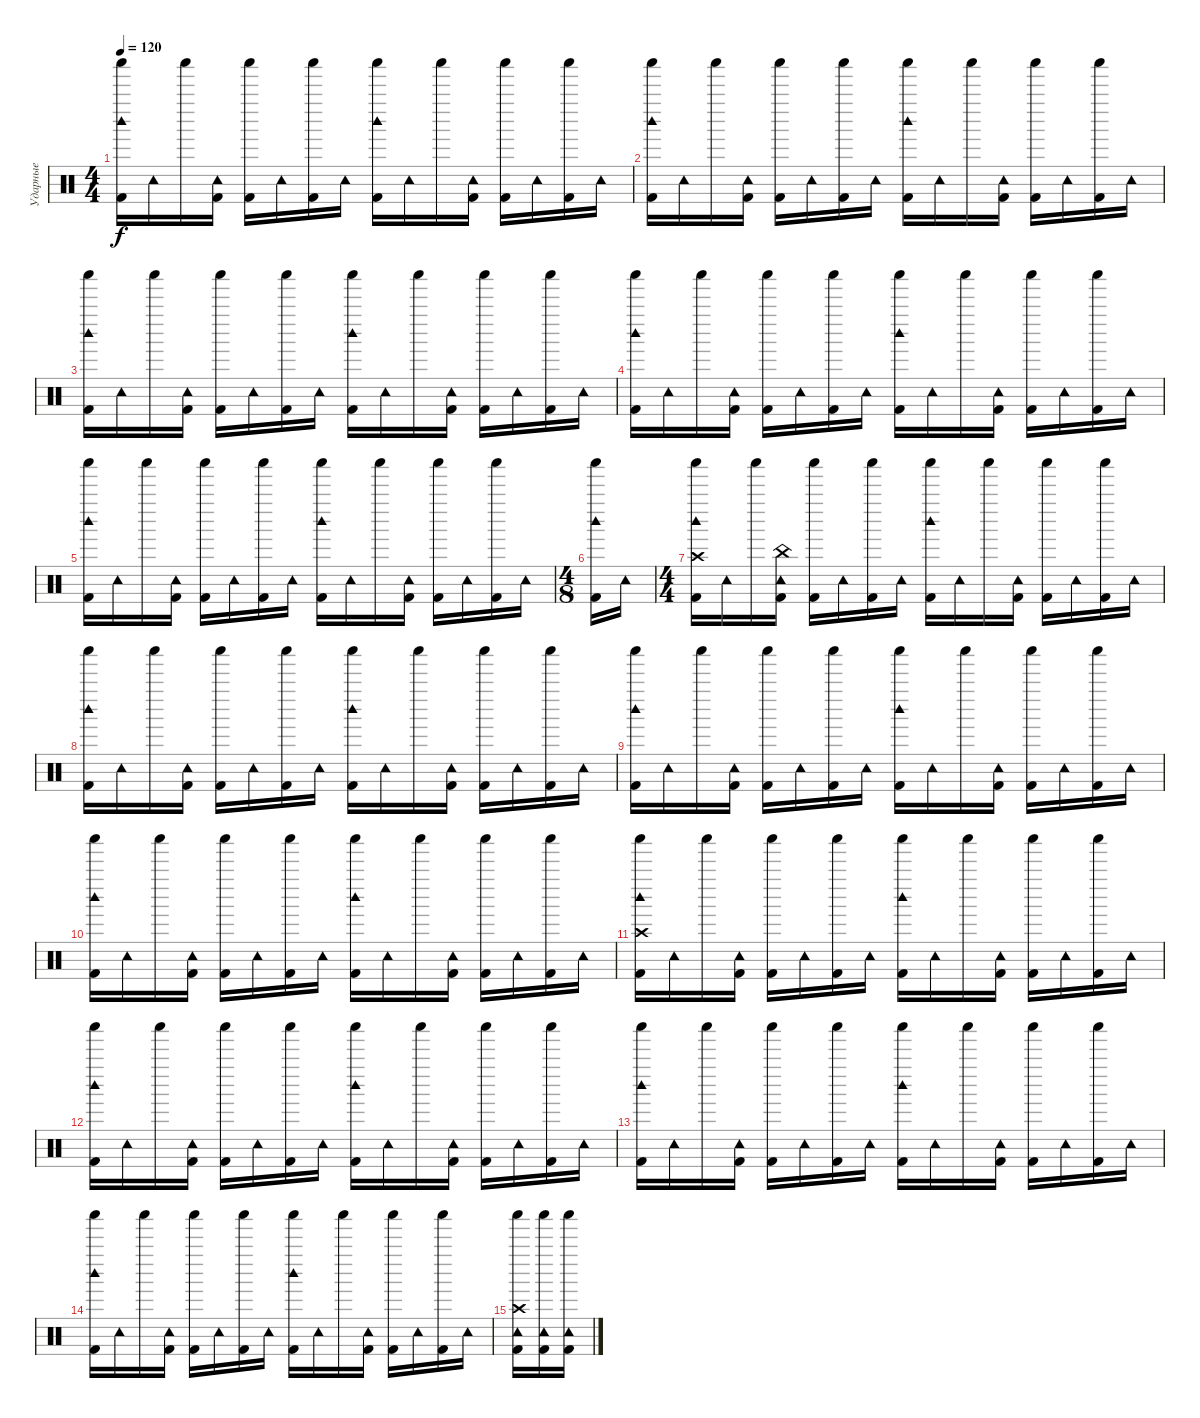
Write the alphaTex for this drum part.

\track ("Ударные" "Ударные") {instrument percussion}
\staff {score}
\articulation defaults
\ts (4 4)
\tempo 120
\clef neutral
\ks c
("Shaker (hit)" "Kick (hit) 2" "Woodblock high (hit)").16{dy f} "Tambourine (hit)".16 "Shaker (hit)".16 ("Tambourine (hit)" "Kick (hit) 2").16 ("Shaker (hit)" "Kick (hit) 2").16 "Tambourine (hit)".16 ("Shaker (hit)" "Kick (hit) 2").16 "Tambourine (hit)".16 ("Shaker (hit)" "Kick (hit) 2" "Woodblock high (hit)").16 "Tambourine (hit)".16 "Shaker (hit)".16 ("Tambourine (hit)" "Kick (hit) 2").16 ("Shaker (hit)" "Kick (hit) 2").16 "Tambourine (hit)".16 ("Shaker (hit)" "Kick (hit) 2").16 "Tambourine (hit)".16 |
("Shaker (hit)" "Kick (hit) 2" "Woodblock high (hit)").16 "Tambourine (hit)".16 "Shaker (hit)".16 ("Tambourine (hit)" "Kick (hit) 2").16 ("Shaker (hit)" "Kick (hit) 2").16 "Tambourine (hit)".16 ("Shaker (hit)" "Kick (hit) 2").16 "Tambourine (hit)".16 ("Shaker (hit)" "Kick (hit) 2" "Woodblock high (hit)").16 "Tambourine (hit)".16 "Shaker (hit)".16 ("Tambourine (hit)" "Kick (hit) 2").16 ("Shaker (hit)" "Kick (hit) 2").16 "Tambourine (hit)".16 ("Shaker (hit)" "Kick (hit) 2").16 "Tambourine (hit)".16 |
("Shaker (hit)" "Kick (hit) 2" "Woodblock high (hit)").16 "Tambourine (hit)".16 "Shaker (hit)".16 ("Tambourine (hit)" "Kick (hit) 2").16 ("Shaker (hit)" "Kick (hit) 2").16 "Tambourine (hit)".16 ("Shaker (hit)" "Kick (hit) 2").16 "Tambourine (hit)".16 ("Shaker (hit)" "Kick (hit) 2" "Woodblock high (hit)").16 "Tambourine (hit)".16 "Shaker (hit)".16 ("Tambourine (hit)" "Kick (hit) 2").16 ("Shaker (hit)" "Kick (hit) 2").16 "Tambourine (hit)".16 ("Shaker (hit)" "Kick (hit) 2").16 "Tambourine (hit)".16 |
("Shaker (hit)" "Kick (hit) 2" "Woodblock high (hit)").16 "Tambourine (hit)".16 "Shaker (hit)".16 ("Tambourine (hit)" "Kick (hit) 2").16 ("Shaker (hit)" "Kick (hit) 2").16 "Tambourine (hit)".16 ("Shaker (hit)" "Kick (hit) 2").16 "Tambourine (hit)".16 ("Shaker (hit)" "Kick (hit) 2" "Woodblock high (hit)").16 "Tambourine (hit)".16 "Shaker (hit)".16 ("Tambourine (hit)" "Kick (hit) 2").16 ("Shaker (hit)" "Kick (hit) 2").16 "Tambourine (hit)".16 ("Shaker (hit)" "Kick (hit) 2").16 "Tambourine (hit)".16 |
("Shaker (hit)" "Kick (hit) 2" "Woodblock high (hit)").16 "Tambourine (hit)".16 "Shaker (hit)".16 ("Tambourine (hit)" "Kick (hit) 2").16 ("Shaker (hit)" "Kick (hit) 2").16 "Tambourine (hit)".16 ("Shaker (hit)" "Kick (hit) 2").16 "Tambourine (hit)".16 ("Shaker (hit)" "Kick (hit) 2" "Woodblock high (hit)").16 "Tambourine (hit)".16 "Shaker (hit)".16 ("Tambourine (hit)" "Kick (hit) 2").16 ("Shaker (hit)" "Kick (hit) 2").16 "Tambourine (hit)".16 ("Shaker (hit)" "Kick (hit) 2").16 "Tambourine (hit)".16 |
\ts (4 8)
("Shaker (hit)" "Kick (hit) 2" "Woodblock high (hit)").16 "Tambourine (hit)".16 |
\ts (4 4)
("Shaker (hit)" "Kick (hit) 2" "Woodblock high (hit)" "Crash high (hit)").16 "Tambourine (hit)".16 "Shaker (hit)".16 ("Tambourine (hit)" "Kick (hit) 2" "China (hit)").16 ("Shaker (hit)" "Kick (hit) 2").16 "Tambourine (hit)".16 ("Shaker (hit)" "Kick (hit) 2").16 "Tambourine (hit)".16 ("Shaker (hit)" "Kick (hit) 2" "Woodblock high (hit)").16 "Tambourine (hit)".16 "Shaker (hit)".16 ("Tambourine (hit)" "Kick (hit) 2").16 ("Shaker (hit)" "Kick (hit) 2").16 "Tambourine (hit)".16 ("Shaker (hit)" "Kick (hit) 2").16 "Tambourine (hit)".16 |
("Shaker (hit)" "Kick (hit) 2" "Woodblock high (hit)").16 "Tambourine (hit)".16 "Shaker (hit)".16 ("Tambourine (hit)" "Kick (hit) 2").16 ("Shaker (hit)" "Kick (hit) 2").16 "Tambourine (hit)".16 ("Shaker (hit)" "Kick (hit) 2").16 "Tambourine (hit)".16 ("Shaker (hit)" "Kick (hit) 2" "Woodblock high (hit)").16 "Tambourine (hit)".16 "Shaker (hit)".16 ("Tambourine (hit)" "Kick (hit) 2").16 ("Shaker (hit)" "Kick (hit) 2").16 "Tambourine (hit)".16 ("Shaker (hit)" "Kick (hit) 2").16 "Tambourine (hit)".16 |
("Shaker (hit)" "Kick (hit) 2" "Woodblock high (hit)").16 "Tambourine (hit)".16 "Shaker (hit)".16 ("Tambourine (hit)" "Kick (hit) 2").16 ("Shaker (hit)" "Kick (hit) 2").16 "Tambourine (hit)".16 ("Shaker (hit)" "Kick (hit) 2").16 "Tambourine (hit)".16 ("Shaker (hit)" "Kick (hit) 2" "Woodblock high (hit)").16 "Tambourine (hit)".16 "Shaker (hit)".16 ("Tambourine (hit)" "Kick (hit) 2").16 ("Shaker (hit)" "Kick (hit) 2").16 "Tambourine (hit)".16 ("Shaker (hit)" "Kick (hit) 2").16 "Tambourine (hit)".16 |
("Shaker (hit)" "Kick (hit) 2" "Woodblock high (hit)").16 "Tambourine (hit)".16 "Shaker (hit)".16 ("Tambourine (hit)" "Kick (hit) 2").16 ("Shaker (hit)" "Kick (hit) 2").16 "Tambourine (hit)".16 ("Shaker (hit)" "Kick (hit) 2").16 "Tambourine (hit)".16 ("Shaker (hit)" "Kick (hit) 2" "Woodblock high (hit)").16 "Tambourine (hit)".16 "Shaker (hit)".16 ("Tambourine (hit)" "Kick (hit) 2").16 ("Shaker (hit)" "Kick (hit) 2").16 "Tambourine (hit)".16 ("Shaker (hit)" "Kick (hit) 2").16 "Tambourine (hit)".16 |
("Shaker (hit)" "Kick (hit) 2" "Crash high (hit)" "Woodblock high (hit)").16 "Tambourine (hit)".16 "Shaker (hit)".16 ("Tambourine (hit)" "Kick (hit) 2").16 ("Shaker (hit)" "Kick (hit) 2").16 "Tambourine (hit)".16 ("Shaker (hit)" "Kick (hit) 2").16 "Tambourine (hit)".16 ("Shaker (hit)" "Kick (hit) 2" "Woodblock high (hit)").16 "Tambourine (hit)".16 "Shaker (hit)".16 ("Tambourine (hit)" "Kick (hit) 2").16 ("Shaker (hit)" "Kick (hit) 2").16 "Tambourine (hit)".16 ("Shaker (hit)" "Kick (hit) 2").16 "Tambourine (hit)".16 |
("Shaker (hit)" "Kick (hit) 2" "Woodblock high (hit)").16 "Tambourine (hit)".16 "Shaker (hit)".16 ("Tambourine (hit)" "Kick (hit) 2").16 ("Shaker (hit)" "Kick (hit) 2").16 "Tambourine (hit)".16 ("Shaker (hit)" "Kick (hit) 2").16 "Tambourine (hit)".16 ("Shaker (hit)" "Kick (hit) 2" "Woodblock high (hit)").16 "Tambourine (hit)".16 "Shaker (hit)".16 ("Tambourine (hit)" "Kick (hit) 2").16 ("Shaker (hit)" "Kick (hit) 2").16 "Tambourine (hit)".16 ("Shaker (hit)" "Kick (hit) 2").16 "Tambourine (hit)".16 |
("Shaker (hit)" "Kick (hit) 2" "Woodblock high (hit)").16 "Tambourine (hit)".16 "Shaker (hit)".16 ("Tambourine (hit)" "Kick (hit) 2").16 ("Shaker (hit)" "Kick (hit) 2").16 "Tambourine (hit)".16 ("Shaker (hit)" "Kick (hit) 2").16 "Tambourine (hit)".16 ("Shaker (hit)" "Kick (hit) 2" "Woodblock high (hit)").16 "Tambourine (hit)".16 "Shaker (hit)".16 ("Tambourine (hit)" "Kick (hit) 2").16 ("Shaker (hit)" "Kick (hit) 2").16 "Tambourine (hit)".16 ("Shaker (hit)" "Kick (hit) 2").16 "Tambourine (hit)".16 |
("Shaker (hit)" "Kick (hit) 2" "Woodblock high (hit)").16 "Tambourine (hit)".16 "Shaker (hit)".16 ("Tambourine (hit)" "Kick (hit) 2").16 ("Shaker (hit)" "Kick (hit) 2").16 "Tambourine (hit)".16 ("Shaker (hit)" "Kick (hit) 2").16 "Tambourine (hit)".16 ("Shaker (hit)" "Kick (hit) 2" "Woodblock high (hit)").16 "Tambourine (hit)".16 "Shaker (hit)".16 ("Tambourine (hit)" "Kick (hit) 2").16 ("Shaker (hit)" "Kick (hit) 2").16 "Tambourine (hit)".16 ("Shaker (hit)" "Kick (hit) 2").16 "Tambourine (hit)".16 |
("Kick (hit) 2" "Shaker (hit)" "Tambourine (hit)" "Crash high (hit)").16 ("Kick (hit) 2" "Shaker (hit)" "Tambourine (hit)").16 ("Kick (hit) 2" "Shaker (hit)" "Tambourine (hit)").16
